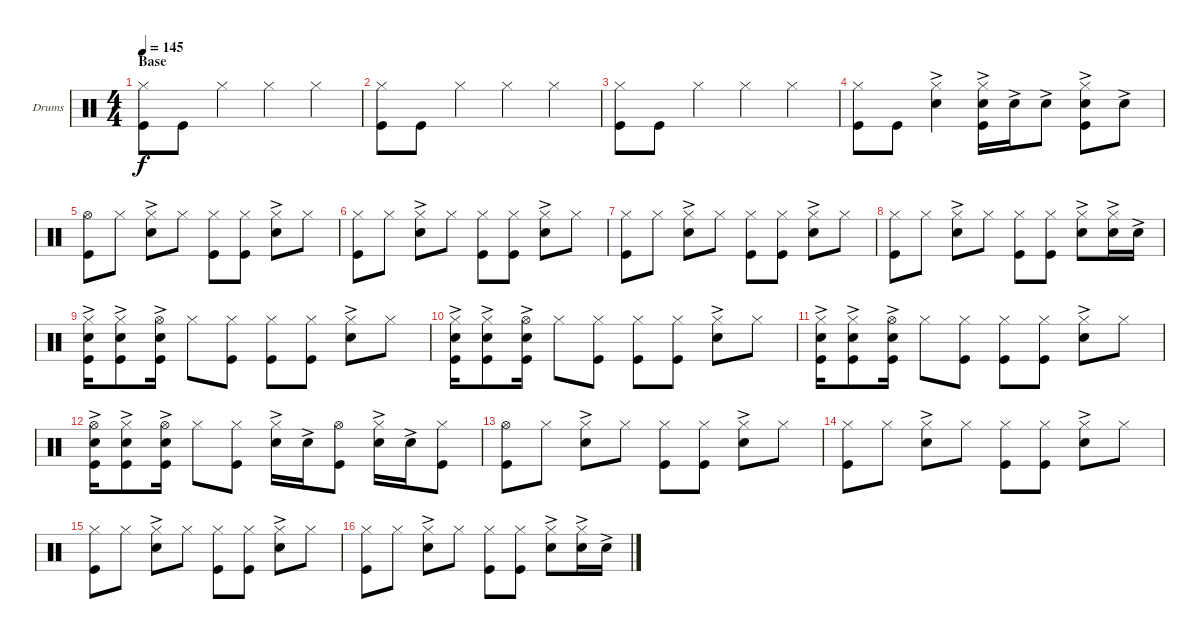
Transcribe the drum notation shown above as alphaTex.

\defaultSystemsLayout 4
\bracketExtendMode groupsimilarinstruments
\firstSystemTrackNameOrientation horizontal
\otherSystemsTrackNameOrientation horizontal
\track ("Drumkit" "Drums") {instrument percussion}
\staff {score}
\articulation defaults
\ts (4 4)
\section ("" "Base")
\tempo 145
\clef neutral
\ks c
("Hi-Hat (closed)" "Kick (hit)").8{dy f} "Kick (hit)".8 "Hi-Hat (closed)".4 "Hi-Hat (closed)".4 "Hi-Hat (closed)".4 |
("Hi-Hat (closed)" "Kick (hit)").8 "Kick (hit)".8 "Hi-Hat (closed)".4 "Hi-Hat (closed)".4 "Hi-Hat (closed)".4 |
("Hi-Hat (closed)" "Kick (hit)").8 "Kick (hit)".8 "Hi-Hat (closed)".4 "Hi-Hat (closed)".4 "Hi-Hat (closed)".4 |
("Hi-Hat (closed)" "Kick (hit)").8 "Kick (hit)".8 ("Hi-Hat (closed)" "Snare (hit) 2"{ac}).4 ("Hi-Hat (closed)" "Kick (hit)" "Snare (hit) 2"{ac}).16 "Snare (hit) 2"{ac}.16 "Snare (hit) 2"{ac}.8 ("Hi-Hat (closed)" "Kick (hit)" "Snare (hit) 2"{ac}).8 "Snare (hit) 2"{ac}.8 |
("Hi-Hat (open)" "Kick (hit)").8 "Hi-Hat (closed)".8 ("Hi-Hat (closed)" "Snare (hit) 2"{ac}).8 "Hi-Hat (closed)".8 ("Hi-Hat (closed)" "Kick (hit)").8 ("Hi-Hat (closed)" "Kick (hit)").8 ("Hi-Hat (closed)" "Snare (hit) 2"{ac}).8 "Hi-Hat (closed)".8 |
("Hi-Hat (closed)" "Kick (hit)").8 "Hi-Hat (closed)".8 ("Hi-Hat (closed)" "Snare (hit) 2"{ac}).8 "Hi-Hat (closed)".8 ("Hi-Hat (closed)" "Kick (hit)").8 ("Hi-Hat (closed)" "Kick (hit)").8 ("Hi-Hat (closed)" "Snare (hit) 2"{ac}).8 "Hi-Hat (closed)".8 |
("Hi-Hat (closed)" "Kick (hit)").8 "Hi-Hat (closed)".8 ("Hi-Hat (closed)" "Snare (hit) 2"{ac}).8 "Hi-Hat (closed)".8 ("Hi-Hat (closed)" "Kick (hit)").8 ("Hi-Hat (closed)" "Kick (hit)").8 ("Hi-Hat (closed)" "Snare (hit) 2"{ac}).8 "Hi-Hat (closed)".8 |
("Hi-Hat (closed)" "Kick (hit)").8 "Hi-Hat (closed)".8 ("Hi-Hat (closed)" "Snare (hit) 2"{ac}).8 "Hi-Hat (closed)".8 ("Hi-Hat (closed)" "Kick (hit)").8 ("Hi-Hat (closed)" "Kick (hit)").8 ("Hi-Hat (closed)" "Snare (hit) 2"{ac}).8 ("Hi-Hat (closed)" "Snare (hit) 2"{ac}).16 "Snare (hit) 2"{ac}.16 |
("Snare (hit) 2"{ac} "Hi-Hat (closed)" "Kick (hit)").16 ("Snare (hit) 2"{ac} "Hi-Hat (closed)" "Kick (hit)").8 ("Snare (hit) 2"{ac} "Hi-Hat (open)" "Kick (hit)").16 "Hi-Hat (closed)".8 ("Hi-Hat (closed)" "Kick (hit)").8 ("Kick (hit)" "Hi-Hat (closed)").8 ("Kick (hit)" "Hi-Hat (closed)").8 ("Snare (hit) 2"{ac} "Hi-Hat (closed)").8 "Hi-Hat (closed)".8 |
("Snare (hit) 2"{ac} "Hi-Hat (closed)" "Kick (hit)").16 ("Snare (hit) 2"{ac} "Hi-Hat (closed)" "Kick (hit)").8 ("Snare (hit) 2"{ac} "Hi-Hat (open)" "Kick (hit)").16 "Hi-Hat (closed)".8 ("Hi-Hat (closed)" "Kick (hit)").8 ("Kick (hit)" "Hi-Hat (closed)").8 ("Kick (hit)" "Hi-Hat (closed)").8 ("Snare (hit) 2"{ac} "Hi-Hat (closed)").8 "Hi-Hat (closed)".8 |
("Snare (hit) 2"{ac} "Hi-Hat (closed)" "Kick (hit)").16 ("Snare (hit) 2"{ac} "Hi-Hat (closed)" "Kick (hit)").8 ("Snare (hit) 2"{ac} "Hi-Hat (open)" "Kick (hit)").16 "Hi-Hat (closed)".8 ("Hi-Hat (closed)" "Kick (hit)").8 ("Kick (hit)" "Hi-Hat (closed)").8 ("Kick (hit)" "Hi-Hat (closed)").8 ("Snare (hit) 2"{ac} "Hi-Hat (closed)").8 "Hi-Hat (closed)".8 |
("Snare (hit) 2"{ac} "Hi-Hat (open)" "Kick (hit)").16 ("Snare (hit) 2"{ac} "Hi-Hat (closed)" "Kick (hit)").8 ("Snare (hit) 2"{ac} "Hi-Hat (open)" "Kick (hit)").16 "Hi-Hat (closed)".8 ("Hi-Hat (closed)" "Kick (hit)").8 ("Hi-Hat (closed)" "Snare (hit) 2"{ac}).16 "Snare (hit) 2"{ac}.16 ("Kick (hit)" "Hi-Hat (open)").8 ("Snare (hit) 2"{ac} "Hi-Hat (closed)").16 "Snare (hit) 2"{ac}.16 ("Hi-Hat (closed)" "Kick (hit)").8 |
("Hi-Hat (open)" "Kick (hit)").8 "Hi-Hat (closed)".8 ("Hi-Hat (closed)" "Snare (hit) 2"{ac}).8 "Hi-Hat (closed)".8 ("Hi-Hat (closed)" "Kick (hit)").8 ("Hi-Hat (closed)" "Kick (hit)").8 ("Hi-Hat (closed)" "Snare (hit) 2"{ac}).8 "Hi-Hat (closed)".8 |
("Hi-Hat (closed)" "Kick (hit)").8 "Hi-Hat (closed)".8 ("Hi-Hat (closed)" "Snare (hit) 2"{ac}).8 "Hi-Hat (closed)".8 ("Hi-Hat (closed)" "Kick (hit)").8 ("Hi-Hat (closed)" "Kick (hit)").8 ("Hi-Hat (closed)" "Snare (hit) 2"{ac}).8 "Hi-Hat (closed)".8 |
("Hi-Hat (closed)" "Kick (hit)").8 "Hi-Hat (closed)".8 ("Hi-Hat (closed)" "Snare (hit) 2"{ac}).8 "Hi-Hat (closed)".8 ("Hi-Hat (closed)" "Kick (hit)").8 ("Hi-Hat (closed)" "Kick (hit)").8 ("Hi-Hat (closed)" "Snare (hit) 2"{ac}).8 "Hi-Hat (closed)".8 |
("Hi-Hat (closed)" "Kick (hit)").8 "Hi-Hat (closed)".8 ("Hi-Hat (closed)" "Snare (hit) 2"{ac}).8 "Hi-Hat (closed)".8 ("Hi-Hat (closed)" "Kick (hit)").8 ("Hi-Hat (closed)" "Kick (hit)").8 ("Hi-Hat (closed)" "Snare (hit) 2"{ac}).8 ("Hi-Hat (closed)" "Snare (hit) 2"{ac}).16 "Snare (hit) 2"{ac}.16
